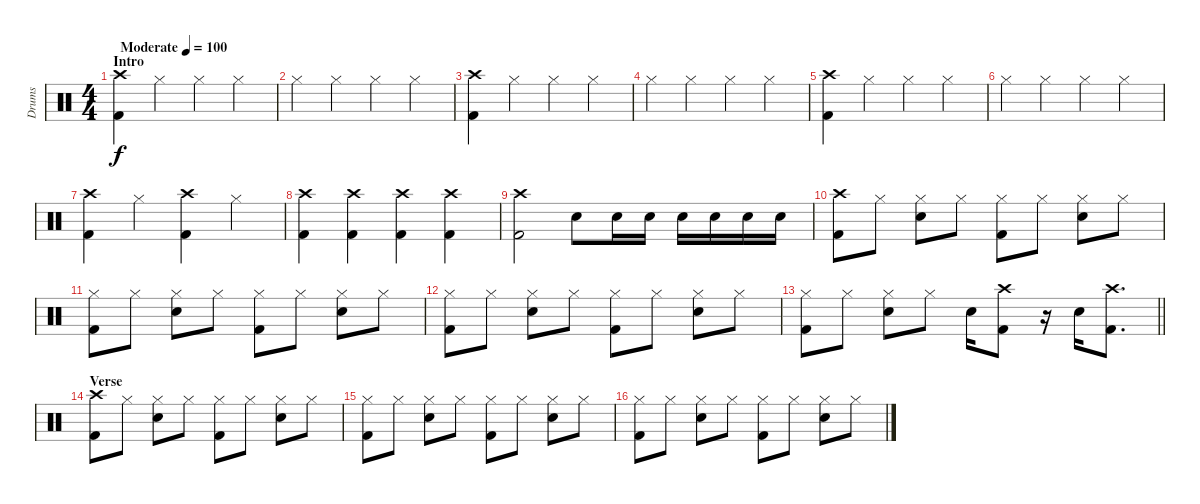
\track ("Drums" "Drums") {instrument percussion}
\staff {score}
\articulation defaults
\ts (4 4)
\section ("" "Intro")
\tempo (100 "Moderate")
\clef neutral
\ks c
("Crash high (hit)" "Kick (hit) 2").4{dy f} "Hi-Hat (closed)".4 "Hi-Hat (closed)".4 "Hi-Hat (closed)".4 |
"Hi-Hat (closed)".4 "Hi-Hat (closed)".4 "Hi-Hat (closed)".4 "Hi-Hat (closed)".4 |
("Crash high (hit)" "Kick (hit) 2").4 "Hi-Hat (closed)".4 "Hi-Hat (closed)".4 "Hi-Hat (closed)".4 |
"Hi-Hat (closed)".4 "Hi-Hat (closed)".4 "Hi-Hat (closed)".4 "Hi-Hat (closed)".4 |
("Crash high (hit)" "Kick (hit) 2").4 "Hi-Hat (closed)".4 "Hi-Hat (closed)".4 "Hi-Hat (closed)".4 |
"Hi-Hat (closed)".4 "Hi-Hat (closed)".4 "Hi-Hat (closed)".4 "Hi-Hat (closed)".4 |
("Crash high (hit)" "Kick (hit) 2").4 "Hi-Hat (closed)".4 ("Crash high (hit)" "Kick (hit) 2").4 "Hi-Hat (closed)".4 |
("Crash high (hit)" "Kick (hit) 2").4 ("Crash high (hit)" "Kick (hit) 2").4 ("Crash high (hit)" "Kick (hit) 2").4 ("Crash high (hit)" "Kick (hit) 2").4 |
("Crash high (hit)" "Kick (hit) 2").2 "Snare (hit) 2".8 "Snare (hit) 2".16 "Snare (hit) 2".16 "Snare (hit) 2".16 "Snare (hit) 2".16 "Snare (hit) 2".16 "Snare (hit) 2".16 |
("Crash high (hit)" "Kick (hit) 2").8 "Hi-Hat (closed)".8 ("Hi-Hat (closed)" "Snare (hit) 2").8 "Hi-Hat (closed)".8 ("Hi-Hat (closed)" "Kick (hit) 2").8 "Hi-Hat (closed)".8 ("Hi-Hat (closed)" "Snare (hit) 2").8 "Hi-Hat (closed)".8 |
("Hi-Hat (closed)" "Kick (hit) 2").8 "Hi-Hat (closed)".8 ("Hi-Hat (closed)" "Snare (hit) 2").8 "Hi-Hat (closed)".8 ("Hi-Hat (closed)" "Kick (hit) 2").8 "Hi-Hat (closed)".8 ("Hi-Hat (closed)" "Snare (hit) 2").8 "Hi-Hat (closed)".8 |
("Hi-Hat (closed)" "Kick (hit) 2").8 "Hi-Hat (closed)".8 ("Hi-Hat (closed)" "Snare (hit) 2").8 "Hi-Hat (closed)".8 ("Hi-Hat (closed)" "Kick (hit) 2").8 "Hi-Hat (closed)".8 ("Hi-Hat (closed)" "Snare (hit) 2").8 "Hi-Hat (closed)".8 |
\barLineRight lightlight
("Hi-Hat (closed)" "Kick (hit) 2").8 "Hi-Hat (closed)".8 ("Hi-Hat (closed)" "Snare (hit) 2").8 "Hi-Hat (closed)".8 "Snare (hit) 2".16 ("Crash high (hit)" "Kick (hit) 2").8 r.16 "Snare (hit) 2".16 ("Crash high (hit)" "Kick (hit) 2").8{d} |
\section ("" "Verse")
("Crash high (hit)" "Kick (hit) 2").8 "Hi-Hat (closed)".8 ("Hi-Hat (closed)" "Snare (hit) 2").8 "Hi-Hat (closed)".8 ("Hi-Hat (closed)" "Kick (hit) 2").8 "Hi-Hat (closed)".8 ("Hi-Hat (closed)" "Snare (hit) 2").8 "Hi-Hat (closed)".8 |
("Hi-Hat (closed)" "Kick (hit) 2").8 "Hi-Hat (closed)".8 ("Hi-Hat (closed)" "Snare (hit) 2").8 "Hi-Hat (closed)".8 ("Hi-Hat (closed)" "Kick (hit) 2").8 "Hi-Hat (closed)".8 ("Hi-Hat (closed)" "Snare (hit) 2").8 "Hi-Hat (closed)".8 |
("Hi-Hat (closed)" "Kick (hit) 2").8 "Hi-Hat (closed)".8 ("Hi-Hat (closed)" "Snare (hit) 2").8 "Hi-Hat (closed)".8 ("Hi-Hat (closed)" "Kick (hit) 2").8 "Hi-Hat (closed)".8 ("Hi-Hat (closed)" "Snare (hit) 2").8 "Hi-Hat (closed)".8
